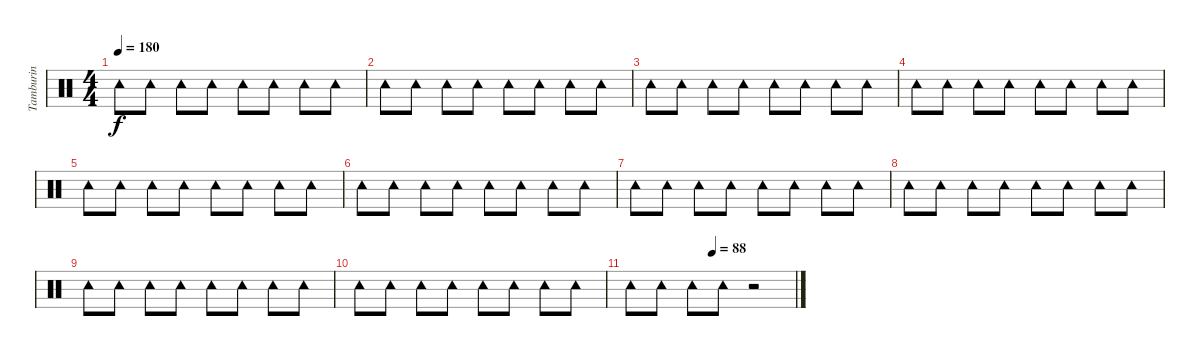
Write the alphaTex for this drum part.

\track ("Tamburin" "Tamburin") {instrument percussion}
\staff {score}
\articulation defaults
\ts (4 4)
\tempo 180
\clef neutral
\ks c "Tambourine (hit)".8{dy f} "Tambourine (hit)".8 "Tambourine (hit)".8 "Tambourine (hit)".8 "Tambourine (hit)".8 "Tambourine (hit)".8 "Tambourine (hit)".8 "Tambourine (hit)".8
|
"Tambourine (hit)".8 "Tambourine (hit)".8 "Tambourine (hit)".8 "Tambourine (hit)".8 "Tambourine (hit)".8 "Tambourine (hit)".8 "Tambourine (hit)".8 "Tambourine (hit)".8 |
"Tambourine (hit)".8 "Tambourine (hit)".8 "Tambourine (hit)".8 "Tambourine (hit)".8 "Tambourine (hit)".8 "Tambourine (hit)".8 "Tambourine (hit)".8 "Tambourine (hit)".8 |
"Tambourine (hit)".8 "Tambourine (hit)".8 "Tambourine (hit)".8 "Tambourine (hit)".8 "Tambourine (hit)".8 "Tambourine (hit)".8 "Tambourine (hit)".8 "Tambourine (hit)".8 |
"Tambourine (hit)".8 "Tambourine (hit)".8 "Tambourine (hit)".8 "Tambourine (hit)".8 "Tambourine (hit)".8 "Tambourine (hit)".8 "Tambourine (hit)".8 "Tambourine (hit)".8 |
"Tambourine (hit)".8 "Tambourine (hit)".8 "Tambourine (hit)".8 "Tambourine (hit)".8 "Tambourine (hit)".8 "Tambourine (hit)".8 "Tambourine (hit)".8 "Tambourine (hit)".8 |
"Tambourine (hit)".8 "Tambourine (hit)".8 "Tambourine (hit)".8 "Tambourine (hit)".8 "Tambourine (hit)".8 "Tambourine (hit)".8 "Tambourine (hit)".8 "Tambourine (hit)".8 |
"Tambourine (hit)".8 "Tambourine (hit)".8 "Tambourine (hit)".8 "Tambourine (hit)".8 "Tambourine (hit)".8 "Tambourine (hit)".8 "Tambourine (hit)".8 "Tambourine (hit)".8 |
"Tambourine (hit)".8 "Tambourine (hit)".8 "Tambourine (hit)".8 "Tambourine (hit)".8 "Tambourine (hit)".8 "Tambourine (hit)".8 "Tambourine (hit)".8 "Tambourine (hit)".8 |
"Tambourine (hit)".8 "Tambourine (hit)".8 "Tambourine (hit)".8 "Tambourine (hit)".8 "Tambourine (hit)".8 "Tambourine (hit)".8 "Tambourine (hit)".8 "Tambourine (hit)".8 |
\tempo (88 0.5)
"Tambourine (hit)".8 "Tambourine (hit)".8 "Tambourine (hit)".8 "Tambourine (hit)".8 r.2
